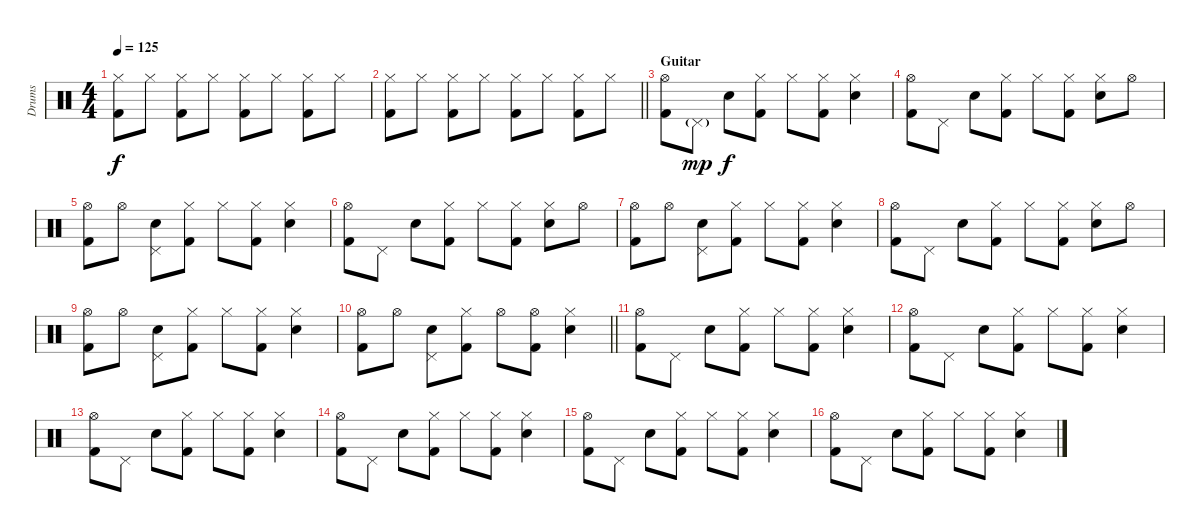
\track ("Drums" "Drums") {instrument percussion}
\staff {score}
\articulation defaults
\ts (4 4)
\tempo 125
\clef neutral
\ks c
("Hi-Hat (closed)" "Kick (hit) 2").8{dy f} "Hi-Hat (closed)".8 ("Hi-Hat (closed)" "Kick (hit) 2").8 "Hi-Hat (closed)".8 ("Hi-Hat (closed)" "Kick (hit) 2").8 "Hi-Hat (closed)".8 ("Hi-Hat (closed)" "Kick (hit) 2").8 "Hi-Hat (closed)".8 |
\barLineRight lightlight
("Hi-Hat (closed)" "Kick (hit) 2").8 "Hi-Hat (closed)".8 ("Hi-Hat (closed)" "Kick (hit) 2").8 "Hi-Hat (closed)".8 ("Hi-Hat (closed)" "Kick (hit) 2").8 "Hi-Hat (closed)".8 ("Hi-Hat (closed)" "Kick (hit) 2").8 "Hi-Hat (closed)".8 |
\section ("" "Guitar")
("Hi-Hat (open)" "Kick (hit) 2").8 "Pedal Hi-Hat (hit)"{g}.8{dy mp} "Hand Clap (hit)".8{dy f} ("Hi-Hat (closed)" "Kick (hit) 2").8 "Hi-Hat (closed)".8 ("Hi-Hat (closed)" "Kick (hit) 2").8 ("Hi-Hat (closed)" "Hand Clap (hit)").4 |
("Hi-Hat (open)" "Kick (hit) 2").8 "Pedal Hi-Hat (hit)".8 "Hand Clap (hit)".8 ("Hi-Hat (closed)" "Kick (hit) 2").8 "Hi-Hat (closed)".8 ("Hi-Hat (closed)" "Kick (hit) 2").8 ("Hi-Hat (closed)" "Hand Clap (hit)").8 "Hi-Hat (open)".8 |
("Hi-Hat (open)" "Kick (hit) 2").8 "Hi-Hat (open)".8 ("Pedal Hi-Hat (hit)" "Hand Clap (hit)").8 ("Hi-Hat (closed)" "Kick (hit) 2").8 "Hi-Hat (closed)".8 ("Hi-Hat (closed)" "Kick (hit) 2").8 ("Hi-Hat (closed)" "Hand Clap (hit)").4 |
("Hi-Hat (open)" "Kick (hit) 2").8 "Pedal Hi-Hat (hit)".8 "Hand Clap (hit)".8 ("Hi-Hat (closed)" "Kick (hit) 2").8 "Hi-Hat (closed)".8 ("Hi-Hat (closed)" "Kick (hit) 2").8 ("Hi-Hat (closed)" "Hand Clap (hit)").8 "Hi-Hat (open)".8 |
("Hi-Hat (open)" "Kick (hit) 2").8 "Hi-Hat (open)".8 ("Pedal Hi-Hat (hit)" "Hand Clap (hit)").8 ("Hi-Hat (closed)" "Kick (hit) 2").8 "Hi-Hat (closed)".8 ("Hi-Hat (closed)" "Kick (hit) 2").8 ("Hi-Hat (closed)" "Hand Clap (hit)").4 |
("Hi-Hat (open)" "Kick (hit) 2").8 "Pedal Hi-Hat (hit)".8 "Hand Clap (hit)".8 ("Hi-Hat (closed)" "Kick (hit) 2").8 "Hi-Hat (closed)".8 ("Hi-Hat (closed)" "Kick (hit) 2").8 ("Hi-Hat (closed)" "Hand Clap (hit)").8 "Hi-Hat (open)".8 |
("Hi-Hat (open)" "Kick (hit) 2").8 "Hi-Hat (open)".8 ("Pedal Hi-Hat (hit)" "Hand Clap (hit)").8 ("Hi-Hat (closed)" "Kick (hit) 2").8 "Hi-Hat (closed)".8 ("Hi-Hat (closed)" "Kick (hit) 2").8 ("Hi-Hat (closed)" "Hand Clap (hit)").4 |
\barLineRight lightlight
("Hi-Hat (open)" "Kick (hit) 2").8 "Hi-Hat (open)".8 ("Pedal Hi-Hat (hit)" "Hand Clap (hit)").8 ("Hi-Hat (closed)" "Kick (hit) 2").8 "Hi-Hat (open)".8 ("Hi-Hat (open)" "Kick (hit) 2").8 ("Hi-Hat (closed)" "Hand Clap (hit)").4 |
\section ("" "")
("Hi-Hat (open)" "Kick (hit) 2").8 "Pedal Hi-Hat (hit)".8 "Hand Clap (hit)".8 ("Hi-Hat (closed)" "Kick (hit) 2").8 "Hi-Hat (closed)".8 ("Hi-Hat (closed)" "Kick (hit) 2").8 ("Hi-Hat (closed)" "Hand Clap (hit)").4 |
("Hi-Hat (open)" "Kick (hit) 2").8 "Pedal Hi-Hat (hit)".8 "Hand Clap (hit)".8 ("Hi-Hat (closed)" "Kick (hit) 2").8 "Hi-Hat (closed)".8 ("Hi-Hat (closed)" "Kick (hit) 2").8 ("Hi-Hat (closed)" "Hand Clap (hit)").4 |
("Hi-Hat (open)" "Kick (hit) 2").8 "Pedal Hi-Hat (hit)".8 "Hand Clap (hit)".8 ("Hi-Hat (closed)" "Kick (hit) 2").8 "Hi-Hat (closed)".8 ("Hi-Hat (closed)" "Kick (hit) 2").8 ("Hi-Hat (closed)" "Hand Clap (hit)").4 |
("Hi-Hat (open)" "Kick (hit) 2").8 "Pedal Hi-Hat (hit)".8 "Hand Clap (hit)".8 ("Hi-Hat (closed)" "Kick (hit) 2").8 "Hi-Hat (closed)".8 ("Hi-Hat (closed)" "Kick (hit) 2").8 ("Hi-Hat (closed)" "Hand Clap (hit)").4 |
("Hi-Hat (open)" "Kick (hit) 2").8 "Pedal Hi-Hat (hit)".8 "Hand Clap (hit)".8 ("Hi-Hat (closed)" "Kick (hit) 2").8 "Hi-Hat (closed)".8 ("Hi-Hat (closed)" "Kick (hit) 2").8 ("Hi-Hat (closed)" "Hand Clap (hit)").4 |
("Hi-Hat (open)" "Kick (hit) 2").8 "Pedal Hi-Hat (hit)".8 "Hand Clap (hit)".8 ("Hi-Hat (closed)" "Kick (hit) 2").8 "Hi-Hat (closed)".8 ("Hi-Hat (closed)" "Kick (hit) 2").8 ("Hi-Hat (closed)" "Hand Clap (hit)").4
